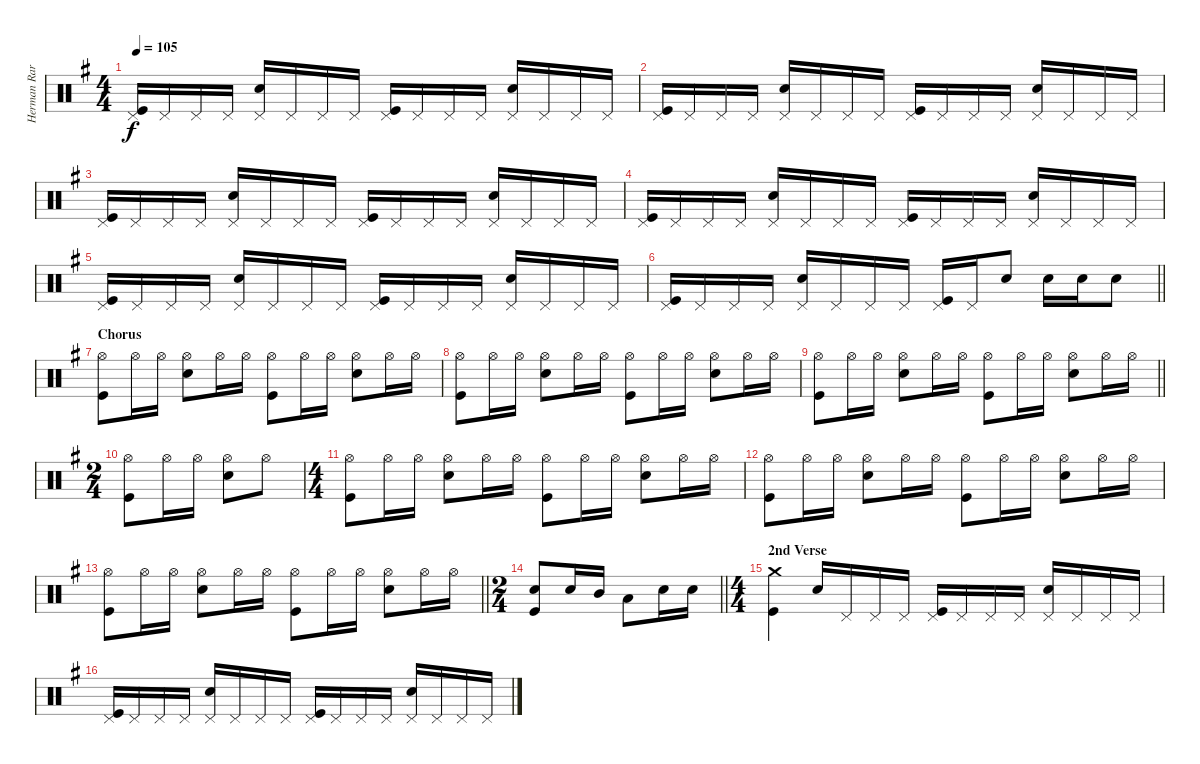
\track ("Herman Rarebell" "Herman Rar") {instrument percussion}
\staff {score}
\articulation defaults
\ts (4 4)
\tempo 105
\clef neutral
\ks g
("Pedal Hi-Hat (hit)" "Kick (hit)").16{dy f} "Pedal Hi-Hat (hit)".16 "Pedal Hi-Hat (hit)".16 "Pedal Hi-Hat (hit)".16 ("Pedal Hi-Hat (hit)" "Snare (hit) 2").16 "Pedal Hi-Hat (hit)".16 "Pedal Hi-Hat (hit)".16 "Pedal Hi-Hat (hit)".16 ("Pedal Hi-Hat (hit)" "Kick (hit)").16 "Pedal Hi-Hat (hit)".16 "Pedal Hi-Hat (hit)".16 "Pedal Hi-Hat (hit)".16 ("Pedal Hi-Hat (hit)" "Snare (hit) 2").16 "Pedal Hi-Hat (hit)".16 "Pedal Hi-Hat (hit)".16 "Pedal Hi-Hat (hit)".16 |
("Pedal Hi-Hat (hit)" "Kick (hit)").16 "Pedal Hi-Hat (hit)".16 "Pedal Hi-Hat (hit)".16 "Pedal Hi-Hat (hit)".16 ("Pedal Hi-Hat (hit)" "Snare (hit) 2").16 "Pedal Hi-Hat (hit)".16 "Pedal Hi-Hat (hit)".16 "Pedal Hi-Hat (hit)".16 ("Pedal Hi-Hat (hit)" "Kick (hit)").16 "Pedal Hi-Hat (hit)".16 "Pedal Hi-Hat (hit)".16 "Pedal Hi-Hat (hit)".16 ("Pedal Hi-Hat (hit)" "Snare (hit) 2").16 "Pedal Hi-Hat (hit)".16 "Pedal Hi-Hat (hit)".16 "Pedal Hi-Hat (hit)".16 |
("Pedal Hi-Hat (hit)" "Kick (hit)").16 "Pedal Hi-Hat (hit)".16 "Pedal Hi-Hat (hit)".16 "Pedal Hi-Hat (hit)".16 ("Pedal Hi-Hat (hit)" "Snare (hit) 2").16 "Pedal Hi-Hat (hit)".16 "Pedal Hi-Hat (hit)".16 "Pedal Hi-Hat (hit)".16 ("Pedal Hi-Hat (hit)" "Kick (hit)").16 "Pedal Hi-Hat (hit)".16 "Pedal Hi-Hat (hit)".16 "Pedal Hi-Hat (hit)".16 ("Pedal Hi-Hat (hit)" "Snare (hit) 2").16 "Pedal Hi-Hat (hit)".16 "Pedal Hi-Hat (hit)".16 "Pedal Hi-Hat (hit)".16 |
("Pedal Hi-Hat (hit)" "Kick (hit)").16 "Pedal Hi-Hat (hit)".16 "Pedal Hi-Hat (hit)".16 "Pedal Hi-Hat (hit)".16 ("Pedal Hi-Hat (hit)" "Snare (hit) 2").16 "Pedal Hi-Hat (hit)".16 "Pedal Hi-Hat (hit)".16 "Pedal Hi-Hat (hit)".16 ("Pedal Hi-Hat (hit)" "Kick (hit)").16 "Pedal Hi-Hat (hit)".16 "Pedal Hi-Hat (hit)".16 "Pedal Hi-Hat (hit)".16 ("Pedal Hi-Hat (hit)" "Snare (hit) 2").16 "Pedal Hi-Hat (hit)".16 "Pedal Hi-Hat (hit)".16 "Pedal Hi-Hat (hit)".16 |
("Pedal Hi-Hat (hit)" "Kick (hit)").16 "Pedal Hi-Hat (hit)".16 "Pedal Hi-Hat (hit)".16 "Pedal Hi-Hat (hit)".16 ("Pedal Hi-Hat (hit)" "Snare (hit) 2").16 "Pedal Hi-Hat (hit)".16 "Pedal Hi-Hat (hit)".16 "Pedal Hi-Hat (hit)".16 ("Pedal Hi-Hat (hit)" "Kick (hit)").16 "Pedal Hi-Hat (hit)".16 "Pedal Hi-Hat (hit)".16 "Pedal Hi-Hat (hit)".16 ("Pedal Hi-Hat (hit)" "Snare (hit) 2").16 "Pedal Hi-Hat (hit)".16 "Pedal Hi-Hat (hit)".16 "Pedal Hi-Hat (hit)".16 |
\barLineRight lightlight
("Pedal Hi-Hat (hit)" "Kick (hit)").16 "Pedal Hi-Hat (hit)".16 "Pedal Hi-Hat (hit)".16 "Pedal Hi-Hat (hit)".16 ("Pedal Hi-Hat (hit)" "Snare (hit) 2").16 "Pedal Hi-Hat (hit)".16 "Pedal Hi-Hat (hit)".16 "Pedal Hi-Hat (hit)".16 ("Pedal Hi-Hat (hit)" "Kick (hit)").16 "Pedal Hi-Hat (hit)".16 "Snare (hit) 2".8 "Snare (hit) 2".16 "Snare (hit) 2".16 "Snare (hit) 2".8 |
\section ("" "Chorus")
("Hi-Hat (open)" "Kick (hit)").8 "Hi-Hat (open)".16 "Hi-Hat (open)".16 ("Hi-Hat (open)" "Snare (hit) 2").8 "Hi-Hat (open)".16 "Hi-Hat (open)".16 ("Hi-Hat (open)" "Kick (hit)").8 "Hi-Hat (open)".16 "Hi-Hat (open)".16 ("Hi-Hat (open)" "Snare (hit) 2").8 "Hi-Hat (open)".16 "Hi-Hat (open)".16 |
("Hi-Hat (open)" "Kick (hit)").8 "Hi-Hat (open)".16 "Hi-Hat (open)".16 ("Hi-Hat (open)" "Snare (hit) 2").8 "Hi-Hat (open)".16 "Hi-Hat (open)".16 ("Hi-Hat (open)" "Kick (hit)").8 "Hi-Hat (open)".16 "Hi-Hat (open)".16 ("Hi-Hat (open)" "Snare (hit) 2").8 "Hi-Hat (open)".16 "Hi-Hat (open)".16 |
\barLineRight lightlight
("Hi-Hat (open)" "Kick (hit)").8 "Hi-Hat (open)".16 "Hi-Hat (open)".16 ("Hi-Hat (open)" "Snare (hit) 2").8 "Hi-Hat (open)".16 "Hi-Hat (open)".16 ("Hi-Hat (open)" "Kick (hit)").8 "Hi-Hat (open)".16 "Hi-Hat (open)".16 ("Hi-Hat (open)" "Snare (hit) 2").8 "Hi-Hat (open)".16 "Hi-Hat (open)".16 |
\ts (2 4)
("Hi-Hat (open)" "Kick (hit)").8 "Hi-Hat (open)".16 "Hi-Hat (open)".16 ("Hi-Hat (open)" "Snare (hit) 2").8 "Hi-Hat (open)".8 |
\ts (4 4)
("Hi-Hat (open)" "Kick (hit)").8 "Hi-Hat (open)".16 "Hi-Hat (open)".16 ("Hi-Hat (open)" "Snare (hit) 2").8 "Hi-Hat (open)".16 "Hi-Hat (open)".16 ("Hi-Hat (open)" "Kick (hit)").8 "Hi-Hat (open)".16 "Hi-Hat (open)".16 ("Hi-Hat (open)" "Snare (hit) 2").8 "Hi-Hat (open)".16 "Hi-Hat (open)".16 |
("Hi-Hat (open)" "Kick (hit)").8 "Hi-Hat (open)".16 "Hi-Hat (open)".16 ("Hi-Hat (open)" "Snare (hit) 2").8 "Hi-Hat (open)".16 "Hi-Hat (open)".16 ("Hi-Hat (open)" "Kick (hit)").8 "Hi-Hat (open)".16 "Hi-Hat (open)".16 ("Hi-Hat (open)" "Snare (hit) 2").8 "Hi-Hat (open)".16 "Hi-Hat (open)".16 |
\barLineRight lightlight
("Hi-Hat (open)" "Kick (hit)").8 "Hi-Hat (open)".16 "Hi-Hat (open)".16 ("Hi-Hat (open)" "Snare (hit) 2").8 "Hi-Hat (open)".16 "Hi-Hat (open)".16 ("Hi-Hat (open)" "Kick (hit)").8 "Hi-Hat (open)".16 "Hi-Hat (open)".16 ("Hi-Hat (open)" "Snare (hit) 2").8 "Hi-Hat (open)".16 "Hi-Hat (open)".16 |
\ts (2 4)
\barLineRight lightlight
("Snare (hit) 2" "Kick (hit)").8 "Snare (hit) 2".16 "Mid Tom (hit)".16 "Low Tom (hit)".8 "Snare (hit) 2".16 "Snare (hit) 2".16 |
\ts (4 4)
\section ("" "2nd Verse")
("Crash medium (hit)" "Kick (hit)").4 "Snare (hit) 2".16 "Pedal Hi-Hat (hit)".16 "Pedal Hi-Hat (hit)".16 "Pedal Hi-Hat (hit)".16 ("Pedal Hi-Hat (hit)" "Kick (hit)").16 "Pedal Hi-Hat (hit)".16 "Pedal Hi-Hat (hit)".16 "Pedal Hi-Hat (hit)".16 ("Pedal Hi-Hat (hit)" "Snare (hit) 2").16 "Pedal Hi-Hat (hit)".16 "Pedal Hi-Hat (hit)".16 "Pedal Hi-Hat (hit)".16 |
("Pedal Hi-Hat (hit)" "Kick (hit)").16 "Pedal Hi-Hat (hit)".16 "Pedal Hi-Hat (hit)".16 "Pedal Hi-Hat (hit)".16 ("Pedal Hi-Hat (hit)" "Snare (hit) 2").16 "Pedal Hi-Hat (hit)".16 "Pedal Hi-Hat (hit)".16 "Pedal Hi-Hat (hit)".16 ("Pedal Hi-Hat (hit)" "Kick (hit)").16 "Pedal Hi-Hat (hit)".16 "Pedal Hi-Hat (hit)".16 "Pedal Hi-Hat (hit)".16 ("Pedal Hi-Hat (hit)" "Snare (hit) 2").16 "Pedal Hi-Hat (hit)".16 "Pedal Hi-Hat (hit)".16 "Pedal Hi-Hat (hit)".16
